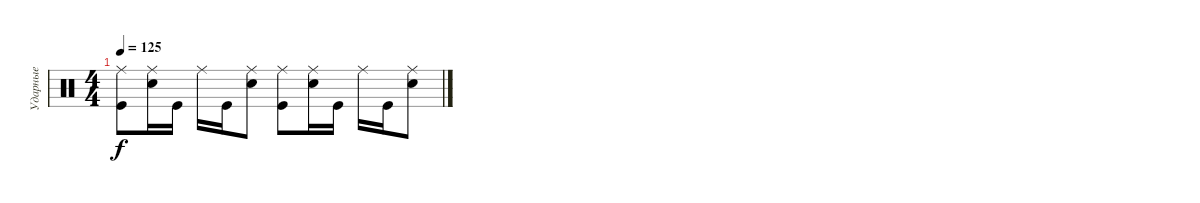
\track ("Ударные" "Ударные") {instrument percussion}
\staff {score}
\articulation defaults
\ts (4 4)
\tempo 125
\clef neutral
\ks c
("Ride (middle)" "Kick (hit)").8{dy f} ("Ride (middle)" "Electric Snare (hit)").16 "Kick (hit)".16 "Ride (middle)".16 "Kick (hit)".16 ("Ride (middle)" "Electric Snare (hit)").8 ("Ride (middle)" "Kick (hit)").8 ("Ride (middle)" "Electric Snare (hit)").16 "Kick (hit)".16 "Ride (middle)".16 "Kick (hit)".16 ("Ride (middle)" "Electric Snare (hit)").8
